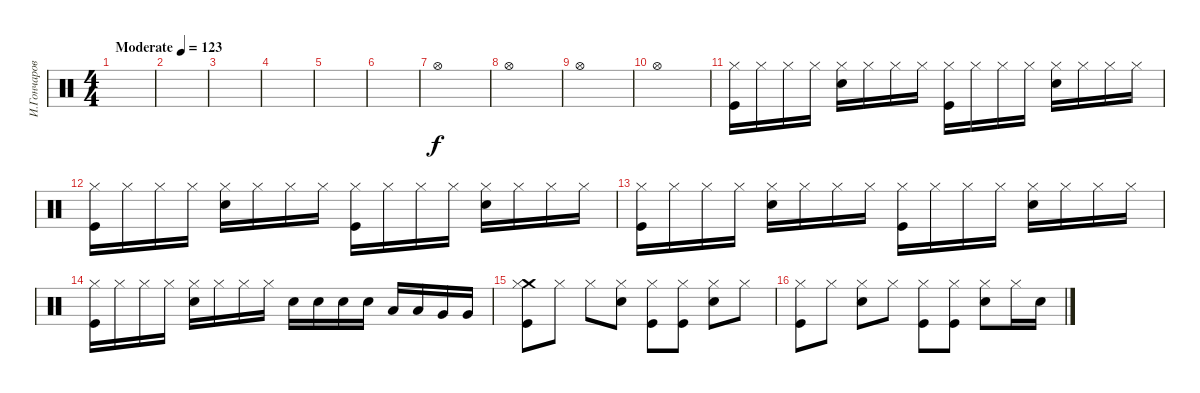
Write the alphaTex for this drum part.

\track ("И.Гончаров" "И.Гончаров") {instrument percussion}
\staff {score}
\articulation defaults
\ts (4 4)
\tempo (123 "Moderate")
\clef neutral
\ks c
|
|
|
|
|
|
"Hi-Hat (open)".1 |
"Hi-Hat (open)".1 |
"Hi-Hat (open)".1 |
"Hi-Hat (open)".1 |
("Hi-Hat (closed)" "Kick (hit)").16 "Hi-Hat (closed)".16 "Hi-Hat (closed)".16 "Hi-Hat (closed)".16 ("Hi-Hat (closed)" "Snare (hit) 2").16 "Hi-Hat (closed)".16 "Hi-Hat (closed)".16 "Hi-Hat (closed)".16 ("Hi-Hat (closed)" "Kick (hit)").16 "Hi-Hat (closed)".16 "Hi-Hat (closed)".16 "Hi-Hat (closed)".16 ("Hi-Hat (closed)" "Snare (hit) 2").16 "Hi-Hat (closed)".16 "Hi-Hat (closed)".16 "Hi-Hat (closed)".16 |
("Hi-Hat (closed)" "Kick (hit)").16 "Hi-Hat (closed)".16 "Hi-Hat (closed)".16 "Hi-Hat (closed)".16 ("Hi-Hat (closed)" "Snare (hit) 2").16 "Hi-Hat (closed)".16 "Hi-Hat (closed)".16 "Hi-Hat (closed)".16 ("Hi-Hat (closed)" "Kick (hit)").16 "Hi-Hat (closed)".16 "Hi-Hat (closed)".16 "Hi-Hat (closed)".16 ("Hi-Hat (closed)" "Snare (hit) 2").16 "Hi-Hat (closed)".16 "Hi-Hat (closed)".16 "Hi-Hat (closed)".16 |
("Hi-Hat (closed)" "Kick (hit)").16 "Hi-Hat (closed)".16 "Hi-Hat (closed)".16 "Hi-Hat (closed)".16 ("Hi-Hat (closed)" "Snare (hit) 2").16 "Hi-Hat (closed)".16 "Hi-Hat (closed)".16 "Hi-Hat (closed)".16 ("Hi-Hat (closed)" "Kick (hit)").16 "Hi-Hat (closed)".16 "Hi-Hat (closed)".16 "Hi-Hat (closed)".16 ("Hi-Hat (closed)" "Snare (hit) 2").16 "Hi-Hat (closed)".16 "Hi-Hat (closed)".16 "Hi-Hat (closed)".16 |
("Hi-Hat (closed)" "Kick (hit)").16 "Hi-Hat (closed)".16 "Hi-Hat (closed)".16 "Hi-Hat (closed)".16 ("Hi-Hat (closed)" "Snare (hit) 2").16 "Hi-Hat (closed)".16 "Hi-Hat (closed)".16 "Hi-Hat (closed)".16 "Snare (hit) 2".16 "Snare (hit) 2".16 "Snare (hit) 2".16 "Snare (hit) 2".16 "Low Tom (hit)".16 "Low Tom (hit)".16 "Very Low Tom (hit)".16 "Very Low Tom (hit)".16 |
("Crash medium (hit)" "Hi-Hat (closed)" "Kick (hit)").8 "Hi-Hat (closed)".8 "Hi-Hat (closed)".8 ("Hi-Hat (closed)" "Snare (hit) 2").8 ("Hi-Hat (closed)" "Kick (hit)").8 ("Hi-Hat (closed)" "Kick (hit)").8 ("Hi-Hat (closed)" "Snare (hit) 2").8 "Hi-Hat (closed)".8 |
("Hi-Hat (closed)" "Kick (hit)").8 "Hi-Hat (closed)".8 ("Hi-Hat (closed)" "Snare (hit) 2").8 "Hi-Hat (closed)".8 ("Hi-Hat (closed)" "Kick (hit)").8 ("Hi-Hat (closed)" "Kick (hit)").8 ("Hi-Hat (closed)" "Snare (hit) 2").8 "Hi-Hat (closed)".16 "Snare (hit) 2".16
